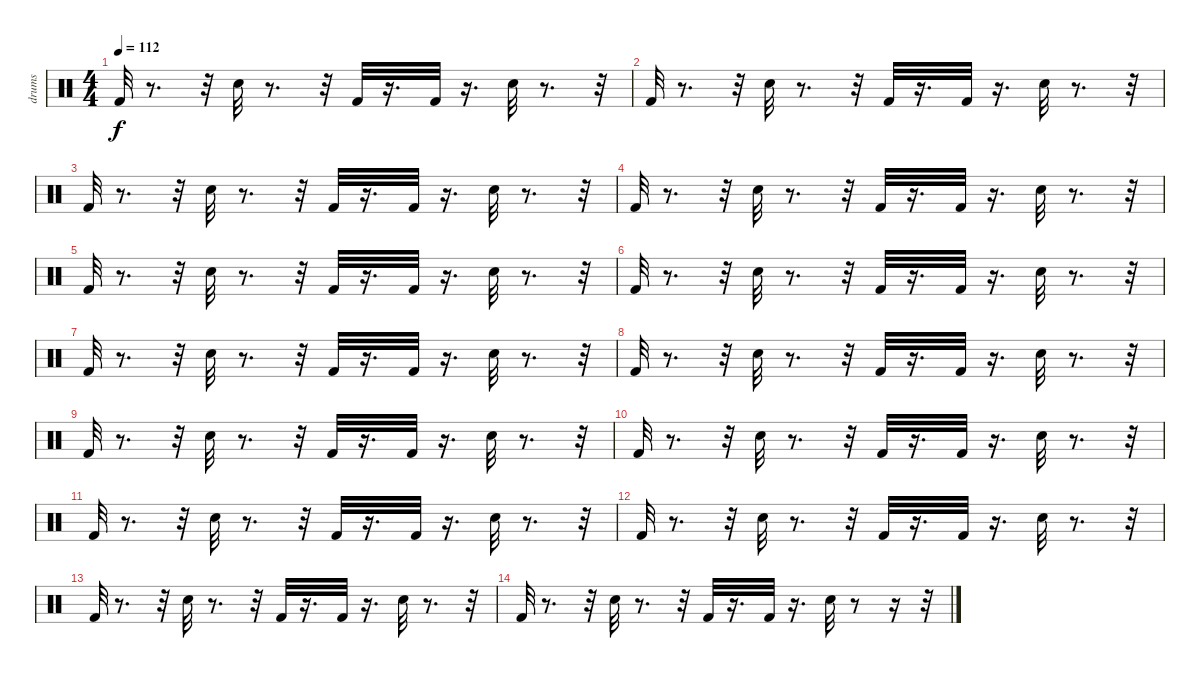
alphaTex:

\track ("drums" "drums") {instrument percussion}
\staff {score}
\articulation defaults
\ts (4 4)
\tempo 112
\clef neutral
\ks c "Kick (hit) 2".32{dy f}
r.8{d} r.32 "Snare (hit) 2".32 r.8{d} r.32 "Kick (hit) 2".32 r.16{d} "Kick (hit) 2".32 r.16{d} "Snare (hit) 2".32 r.8{d} r.32 |
"Kick (hit) 2".32 r.8{d} r.32 "Snare (hit) 2".32 r.8{d} r.32 "Kick (hit) 2".32 r.16{d} "Kick (hit) 2".32 r.16{d} "Snare (hit) 2".32 r.8{d} r.32 |
"Kick (hit) 2".32 r.8{d} r.32 "Snare (hit) 2".32 r.8{d} r.32 "Kick (hit) 2".32 r.16{d} "Kick (hit) 2".32 r.16{d} "Snare (hit) 2".32 r.8{d} r.32 |
"Kick (hit) 2".32 r.8{d} r.32 "Snare (hit) 2".32 r.8{d} r.32 "Kick (hit) 2".32 r.16{d} "Kick (hit) 2".32 r.16{d} "Snare (hit) 2".32 r.8{d} r.32 |
"Kick (hit) 2".32{volume 9} r.8{d} r.32 "Snare (hit) 2".32{volume 9} r.8{d} r.32 "Kick (hit) 2".32{volume 9} r.16{d} "Kick (hit) 2".32{volume 9} r.16{d} "Snare (hit) 2".32{volume 9} r.8{d} r.32 |
"Kick (hit) 2".32{volume 9} r.8{d} r.32 "Snare (hit) 2".32{volume 8} r.8{d} r.32 "Kick (hit) 2".32{volume 8} r.16{d} "Kick (hit) 2".32{volume 8} r.16{d} "Snare (hit) 2".32 r.8{d} r.32 |
"Kick (hit) 2".32{volume 8} r.8{d} r.32 "Snare (hit) 2".32{volume 8} r.8{d} r.32 "Kick (hit) 2".32{volume 7} r.16{d} "Kick (hit) 2".32 r.16{d} "Snare (hit) 2".32{volume 7} r.8{d} r.32 |
"Kick (hit) 2".32{volume 7} r.8{d} r.32 "Snare (hit) 2".32{volume 7} r.8{d} r.32 "Kick (hit) 2".32{volume 6} r.16{d} "Kick (hit) 2".32{volume 6} r.16{d} "Snare (hit) 2".32{volume 6} r.8{d} r.32 |
"Kick (hit) 2".32{volume 6} r.8{d} r.32 "Snare (hit) 2".32{volume 6} r.8{d} r.32 "Kick (hit) 2".32{volume 6} r.16{d} "Kick (hit) 2".32{volume 6} r.16{d} "Snare (hit) 2".32{volume 5} r.8{d} r.32 |
"Kick (hit) 2".32{volume 5} r.8{d} r.32 "Snare (hit) 2".32{volume 5} r.8{d} r.32 "Kick (hit) 2".32{volume 5} r.16{d} "Kick (hit) 2".32{volume 5} r.16{d} "Snare (hit) 2".32{volume 4} r.8{d} r.32 |
"Kick (hit) 2".32{volume 4} r.8{d} r.32 "Snare (hit) 2".32{volume 4} r.8{d} r.32 "Kick (hit) 2".32{volume 4} r.16{d} "Kick (hit) 2".32{volume 4} r.16{d} "Snare (hit) 2".32{volume 4} r.8{d} r.32 |
"Kick (hit) 2".32{volume 4} r.8{d} r.32 "Snare (hit) 2".32{volume 3} r.8{d} r.32 "Kick (hit) 2".32{volume 3} r.16{d} "Kick (hit) 2".32{volume 3} r.16{d} "Snare (hit) 2".32 r.8{d} r.32 |
"Kick (hit) 2".32{volume 3} r.8{d} r.32 "Snare (hit) 2".32{volume 2} r.8{d} r.32 "Kick (hit) 2".32{volume 2} r.16{d} "Kick (hit) 2".32{volume 2} r.16{d} "Snare (hit) 2".32{volume 2} r.8{d} r.32 |
"Kick (hit) 2".32{volume 2} r.8{d} r.32 "Snare (hit) 2".32{volume 2} r.8{d} r.32 "Kick (hit) 2".32{volume 1} r.16{d} "Kick (hit) 2".32{volume 1} r.16{d} "Snare (hit) 2".32{volume 1} r.8 r.16 r.32
